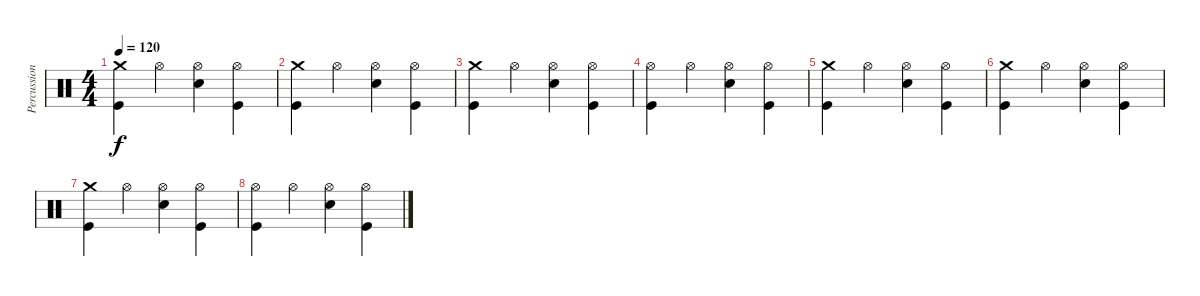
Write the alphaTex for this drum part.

\track ("Percussion" "Percussion") {instrument percussion}
\staff {score}
\articulation defaults
\ts (4 4)
\tempo 120
\clef neutral
\ks c
("Crash medium (hit)" "Kick (hit)").4{dy f} "Hi-Hat (open)".4 ("Hi-Hat (open)" "Snare (hit) 2").4 ("Hi-Hat (open)" "Kick (hit)").4 |
("Crash medium (hit)" "Kick (hit)").4 "Hi-Hat (open)".4 ("Hi-Hat (open)" "Snare (hit) 2").4 ("Hi-Hat (open)" "Kick (hit)").4 |
("Crash medium (hit)" "Kick (hit)").4 "Hi-Hat (open)".4 ("Hi-Hat (open)" "Snare (hit) 2").4 ("Hi-Hat (open)" "Kick (hit)").4 |
("Hi-Hat (open)" "Kick (hit)").4 "Hi-Hat (open)".4 ("Hi-Hat (open)" "Snare (hit) 2").4 ("Hi-Hat (open)" "Kick (hit)").4 |
("Crash medium (hit)" "Kick (hit)").4 "Hi-Hat (open)".4 ("Hi-Hat (open)" "Snare (hit) 2").4 ("Hi-Hat (open)" "Kick (hit)").4 |
("Crash medium (hit)" "Kick (hit)").4 "Hi-Hat (open)".4 ("Hi-Hat (open)" "Snare (hit) 2").4 ("Hi-Hat (open)" "Kick (hit)").4 |
("Crash medium (hit)" "Kick (hit)").4 "Hi-Hat (open)".4 ("Hi-Hat (open)" "Snare (hit) 2").4 ("Hi-Hat (open)" "Kick (hit)").4 |
("Hi-Hat (open)" "Kick (hit)").4 "Hi-Hat (open)".4 ("Hi-Hat (open)" "Snare (hit) 2").4 ("Hi-Hat (open)" "Kick (hit)").4
